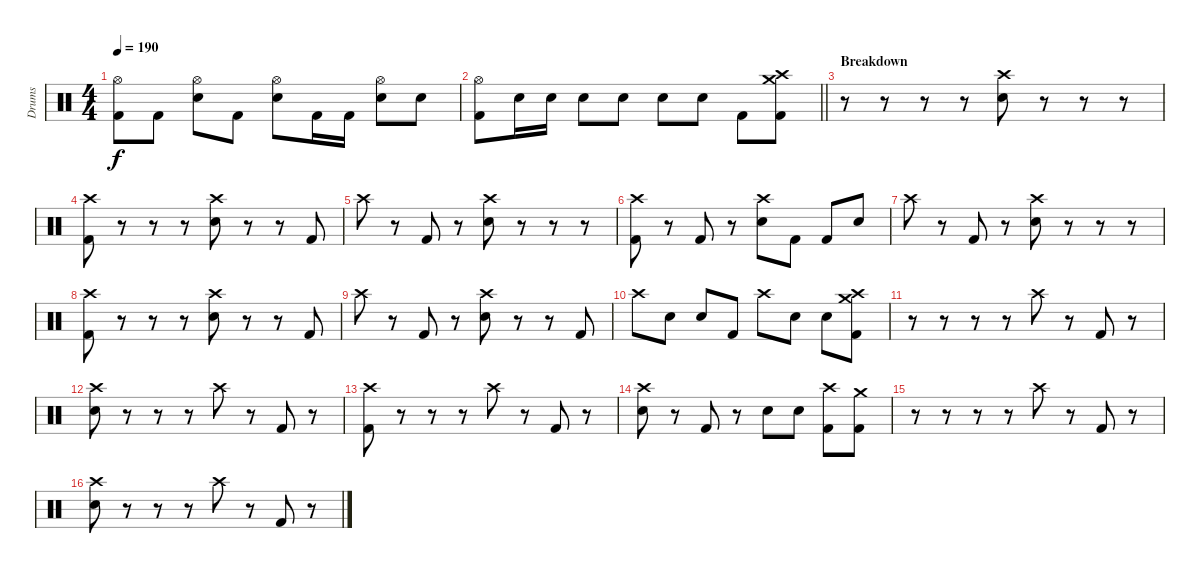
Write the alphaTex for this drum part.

\track ("Drums" "Drums") {instrument percussion}
\staff
\articulation defaults
\ts (4 4)
\tempo 190
\clef neutral
\ks c
("Hi-Hat (open)" "Kick (hit) 2").8{dy f} "Kick (hit) 2".8 ("Hi-Hat (open)" "Electric Snare (hit)").8 "Kick (hit) 2".8 ("Hi-Hat (open)" "Electric Snare (hit)").8 "Kick (hit) 2".16 "Kick (hit) 2".16 ("Hi-Hat (open)" "Electric Snare (hit)").8 "Electric Snare (hit)".8 |
\barLineRight lightlight
("Hi-Hat (open)" "Kick (hit) 2").8 "Electric Snare (hit)".16 "Electric Snare (hit)".16 "Electric Snare (hit)".8 "Electric Snare (hit)".8 "Electric Snare (hit)".8 "Electric Snare (hit)".8 "Kick (hit) 2".8 ("Crash medium (hit)" "Crash high (hit)" "Kick (hit) 2").8 |
\section ("" "Breakdown")
r.8 r.8 r.8 r.8 ("Crash high (hit)" "Electric Snare (hit)").8 r.8 r.8 r.8 |
("Crash high (hit)" "Kick (hit) 2").8 r.8 r.8 r.8 ("Crash high (hit)" "Electric Snare (hit)").8 r.8 r.8 "Kick (hit) 2".8 |
"Crash high (hit)".8 r.8 "Kick (hit) 2".8 r.8 ("Crash high (hit)" "Electric Snare (hit)").8 r.8 r.8 r.8 |
("Crash high (hit)" "Kick (hit) 2").8 r.8 "Kick (hit) 2".8 r.8 ("Crash high (hit)" "Electric Snare (hit)").8 "Kick (hit) 2".8 "Kick (hit) 2".8 "Electric Snare (hit)".8 |
"Crash high (hit)".8 r.8 "Kick (hit) 2".8 r.8 ("Crash high (hit)" "Electric Snare (hit)").8 r.8 r.8 r.8 |
("Crash high (hit)" "Kick (hit) 2").8 r.8 r.8 r.8 ("Crash high (hit)" "Electric Snare (hit)").8 r.8 r.8 "Kick (hit) 2".8 |
"Crash high (hit)".8 r.8 "Kick (hit) 2".8 r.8 ("Crash high (hit)" "Electric Snare (hit)").8 r.8 r.8 "Kick (hit) 2".8 |
"Crash high (hit)".8 "Electric Snare (hit)".8 "Electric Snare (hit)".8 "Kick (hit) 2".8 "Crash high (hit)".8 "Electric Snare (hit)".8 "Electric Snare (hit)".8 ("Crash medium (hit)" "Crash high (hit)" "Kick (hit) 2").8 |
r.8 r.8 r.8 r.8 "Crash high (hit)".8 r.8 "Kick (hit) 2".8 r.8 |
("Crash high (hit)" "Electric Snare (hit)").8 r.8 r.8 r.8 "Crash high (hit)".8 r.8 "Kick (hit) 2".8 r.8 |
("Crash high (hit)" "Kick (hit) 2").8 r.8 r.8 r.8 "Crash high (hit)".8 r.8 "Kick (hit) 2".8 r.8 |
("Crash high (hit)" "Electric Snare (hit)").8 r.8 "Kick (hit) 2".8 r.8 "Electric Snare (hit)".8 "Electric Snare (hit)".8 ("Crash high (hit)" "Kick (hit) 2").8 ("Crash medium (hit)" "Kick (hit) 2").8 |
r.8 r.8 r.8 r.8 "Crash high (hit)".8 r.8 "Kick (hit) 2".8 r.8 |
("Crash high (hit)" "Electric Snare (hit)").8 r.8 r.8 r.8 "Crash high (hit)".8 r.8 "Kick (hit) 2".8 r.8
